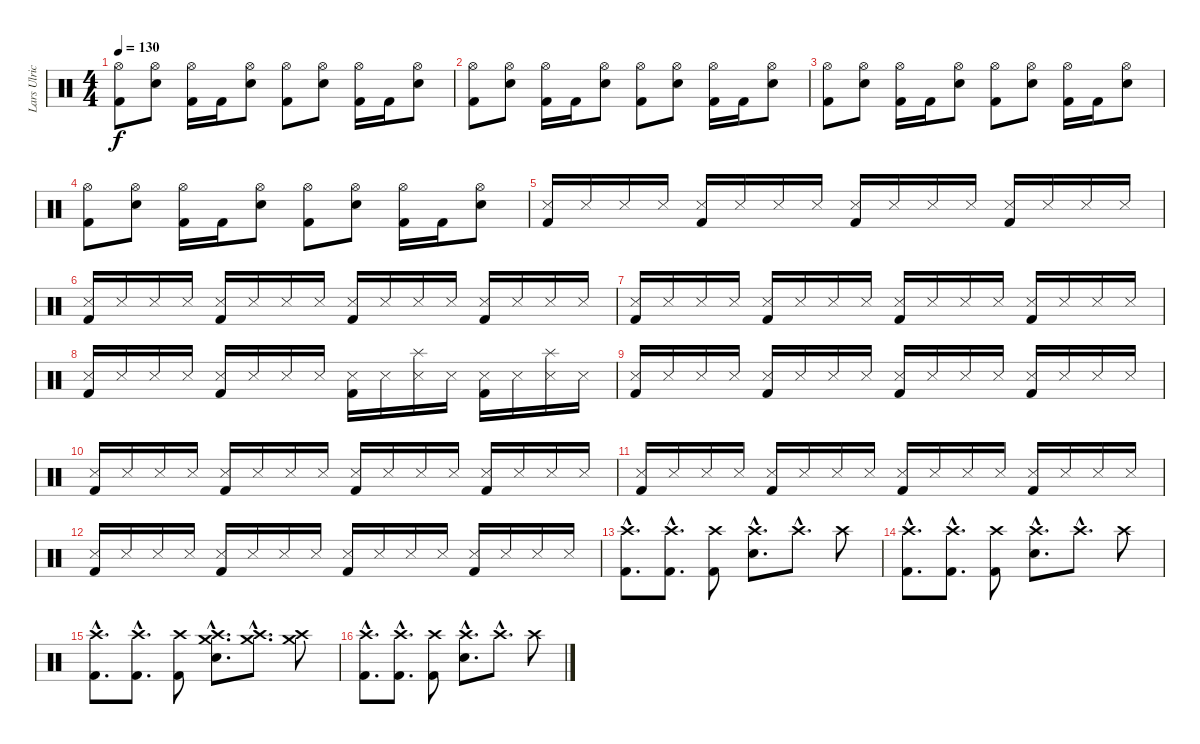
\track ("Lars Ulrich" "Lars Ulric") {instrument percussion}
\staff {score}
\articulation defaults
\ts (4 4)
\tempo 130
\clef neutral
\ks c
("Hi-Hat (open)" "Kick (hit) 2").8{dy f} ("Hi-Hat (open)" "Electric Snare (hit)").8 ("Hi-Hat (open)" "Kick (hit) 2").16 "Kick (hit) 2".16 ("Hi-Hat (open)" "Electric Snare (hit)").8 ("Hi-Hat (open)" "Kick (hit) 2").8 ("Hi-Hat (open)" "Electric Snare (hit)").8 ("Hi-Hat (open)" "Kick (hit) 2").16 "Kick (hit) 2".16 ("Hi-Hat (open)" "Electric Snare (hit)").8 |
("Hi-Hat (open)" "Kick (hit) 2").8 ("Hi-Hat (open)" "Electric Snare (hit)").8 ("Hi-Hat (open)" "Kick (hit) 2").16 "Kick (hit) 2".16 ("Hi-Hat (open)" "Electric Snare (hit)").8 ("Hi-Hat (open)" "Kick (hit) 2").8 ("Hi-Hat (open)" "Electric Snare (hit)").8 ("Hi-Hat (open)" "Kick (hit) 2").16 "Kick (hit) 2".16 ("Hi-Hat (open)" "Electric Snare (hit)").8 |
("Hi-Hat (open)" "Kick (hit) 2").8 ("Hi-Hat (open)" "Electric Snare (hit)").8 ("Hi-Hat (open)" "Kick (hit) 2").16 "Kick (hit) 2".16 ("Hi-Hat (open)" "Electric Snare (hit)").8 ("Hi-Hat (open)" "Kick (hit) 2").8 ("Hi-Hat (open)" "Electric Snare (hit)").8 ("Hi-Hat (open)" "Kick (hit) 2").16 "Kick (hit) 2".16 ("Hi-Hat (open)" "Electric Snare (hit)").8 |
("Hi-Hat (open)" "Kick (hit) 2").8 ("Hi-Hat (open)" "Electric Snare (hit)").8 ("Hi-Hat (open)" "Kick (hit) 2").16 "Kick (hit) 2".16 ("Hi-Hat (open)" "Electric Snare (hit)").8 ("Hi-Hat (open)" "Kick (hit) 2").8 ("Hi-Hat (open)" "Electric Snare (hit)").8 ("Hi-Hat (open)" "Kick (hit) 2").16 "Kick (hit) 2".16 ("Hi-Hat (open)" "Electric Snare (hit)").8 |
("Metronome (hit)" "Kick (hit) 2").16 "Snare (side stick) 3".16 "Snare (side stick) 3".16 "Snare (side stick) 3".16 ("Metronome (hit)" "Kick (hit) 2").16 "Snare (side stick) 3".16 "Snare (side stick) 3".16 "Snare (side stick) 3".16 ("Metronome (hit)" "Kick (hit) 2").16 "Snare (side stick) 3".16 "Snare (side stick) 3".16 "Snare (side stick) 3".16 ("Metronome (hit)" "Kick (hit) 2").16 "Snare (side stick) 3".16 "Snare (side stick) 3".16 "Snare (side stick) 3".16 |
("Metronome (hit)" "Kick (hit) 2").16 "Snare (side stick) 3".16 "Snare (side stick) 3".16 "Snare (side stick) 3".16 ("Metronome (hit)" "Kick (hit) 2").16 "Snare (side stick) 3".16 "Snare (side stick) 3".16 "Snare (side stick) 3".16 ("Metronome (hit)" "Kick (hit) 2").16 "Snare (side stick) 3".16 "Snare (side stick) 3".16 "Snare (side stick) 3".16 ("Metronome (hit)" "Kick (hit) 2").16 "Snare (side stick) 3".16 "Snare (side stick) 3".16 "Snare (side stick) 3".16 |
("Metronome (hit)" "Kick (hit) 2").16 "Snare (side stick) 3".16 "Snare (side stick) 3".16 "Snare (side stick) 3".16 ("Metronome (hit)" "Kick (hit) 2").16 "Snare (side stick) 3".16 "Snare (side stick) 3".16 "Snare (side stick) 3".16 ("Metronome (hit)" "Kick (hit) 2").16 "Snare (side stick) 3".16 "Snare (side stick) 3".16 "Snare (side stick) 3".16 ("Metronome (hit)" "Kick (hit) 2").16 "Snare (side stick) 3".16 "Snare (side stick) 3".16 "Snare (side stick) 3".16 |
("Metronome (hit)" "Kick (hit) 2").16 "Snare (side stick) 3".16 "Snare (side stick) 3".16 "Snare (side stick) 3".16 ("Metronome (hit)" "Kick (hit) 2").16 "Snare (side stick) 3".16 "Snare (side stick) 3".16 "Snare (side stick) 3".16 ("Metronome (hit)" "Kick (hit) 2").16 "Snare (side stick) 3".16 ("Splash (hit)" "Snare (side stick) 3").16 "Snare (side stick) 3".16 ("Metronome (hit)" "Kick (hit) 2").16 "Snare (side stick) 3".16 ("Splash (hit)" "Snare (side stick) 3").16 "Snare (side stick) 3".16 |
("Metronome (hit)" "Kick (hit) 2").16 "Snare (side stick) 3".16 "Snare (side stick) 3".16 "Snare (side stick) 3".16 ("Metronome (hit)" "Kick (hit) 2").16 "Snare (side stick) 3".16 "Snare (side stick) 3".16 "Snare (side stick) 3".16 ("Metronome (hit)" "Kick (hit) 2").16 "Snare (side stick) 3".16 "Snare (side stick) 3".16 "Snare (side stick) 3".16 ("Metronome (hit)" "Kick (hit) 2").16 "Snare (side stick) 3".16 "Snare (side stick) 3".16 "Snare (side stick) 3".16 |
("Metronome (hit)" "Kick (hit) 2").16 "Snare (side stick) 3".16 "Snare (side stick) 3".16 "Snare (side stick) 3".16 ("Metronome (hit)" "Kick (hit) 2").16 "Snare (side stick) 3".16 "Snare (side stick) 3".16 "Snare (side stick) 3".16 ("Metronome (hit)" "Kick (hit) 2").16 "Snare (side stick) 3".16 "Snare (side stick) 3".16 "Snare (side stick) 3".16 ("Metronome (hit)" "Kick (hit) 2").16 "Snare (side stick) 3".16 "Snare (side stick) 3".16 "Snare (side stick) 3".16 |
("Metronome (hit)" "Kick (hit) 2").16 "Snare (side stick) 3".16 "Snare (side stick) 3".16 "Snare (side stick) 3".16 ("Metronome (hit)" "Kick (hit) 2").16 "Snare (side stick) 3".16 "Snare (side stick) 3".16 "Snare (side stick) 3".16 ("Metronome (hit)" "Kick (hit) 2").16 "Snare (side stick) 3".16 "Snare (side stick) 3".16 "Snare (side stick) 3".16 ("Metronome (hit)" "Kick (hit) 2").16 "Snare (side stick) 3".16 "Snare (side stick) 3".16 "Snare (side stick) 3".16 |
("Metronome (hit)" "Kick (hit) 2").16 "Snare (side stick) 3".16 "Snare (side stick) 3".16 "Snare (side stick) 3".16 ("Metronome (hit)" "Kick (hit) 2").16 "Snare (side stick) 3".16 "Snare (side stick) 3".16 "Snare (side stick) 3".16 ("Metronome (hit)" "Kick (hit) 2").16 "Snare (side stick) 3".16 "Snare (side stick) 3".16 "Snare (side stick) 3".16 ("Metronome (hit)" "Kick (hit) 2").16 "Snare (side stick) 3".16 "Snare (side stick) 3".16 "Snare (side stick) 3".16 |
("Crash high (hit)"{hac} "Kick (hit) 2"{hac}).8{d} ("Crash high (hit)"{hac} "Kick (hit) 2"{hac}).8{d} ("Crash high (hit)" "Kick (hit) 2").8 ("Crash high (hit)"{hac} "Electric Snare (hit)"{hac}).8{d} "Crash high (hit)"{hac}.8{d} "Crash high (hit)".8 |
("Crash high (hit)"{hac} "Kick (hit) 2"{hac}).8{d} ("Crash high (hit)"{hac} "Kick (hit) 2"{hac}).8{d} ("Crash high (hit)" "Kick (hit) 2").8 ("Crash high (hit)"{hac} "Electric Snare (hit)"{hac}).8{d} "Crash high (hit)"{hac}.8{d} "Crash high (hit)".8 |
("Crash high (hit)"{hac} "Kick (hit) 2"{hac}).8{d} ("Crash high (hit)"{hac} "Kick (hit) 2"{hac}).8{d} ("Crash high (hit)" "Kick (hit) 2").8 ("Crash medium (hit)"{hac} "Crash high (hit)"{hac} "Electric Snare (hit)"{hac}).8{d} ("Crash medium (hit)"{hac} "Crash high (hit)"{hac}).8{d} ("Crash medium (hit)" "Crash high (hit)").8 |
("Crash high (hit)"{hac} "Kick (hit) 2"{hac}).8{d} ("Crash high (hit)"{hac} "Kick (hit) 2"{hac}).8{d} ("Crash high (hit)" "Kick (hit) 2").8 ("Crash high (hit)"{hac} "Electric Snare (hit)"{hac}).8{d} "Crash high (hit)"{hac}.8{d} "Crash high (hit)".8
